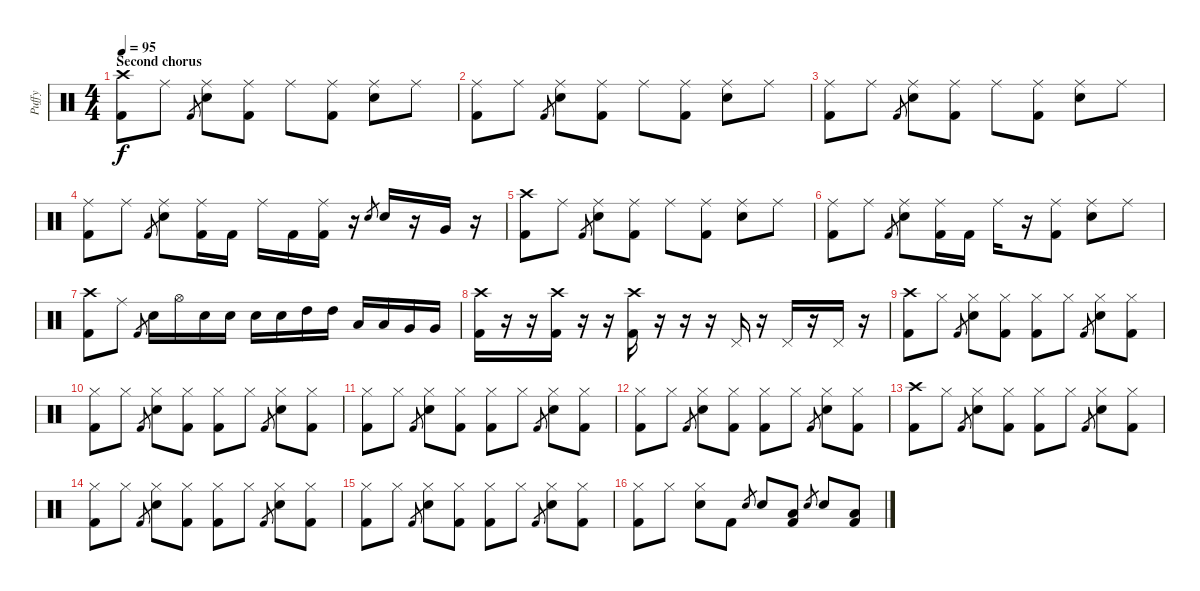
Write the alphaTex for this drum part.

\track ("Puffy" "Puffy") {instrument percussion}
\staff {score}
\articulation defaults
\ts (4 4)
\section ("" "Second chorus")
\tempo 95
\clef neutral
\ks c
("Crash high (hit)" "Kick (hit) 2").8{dy f} "Ride (middle)".8 "Kick (hit) 2".8{gr} ("Ride (middle)" "Snare (hit) 2").8 ("Ride (middle)" "Kick (hit) 2").8 "Ride (middle)".8 ("Ride (middle)" "Kick (hit) 2").8 ("Ride (middle)" "Snare (hit) 2").8 "Ride (middle)".8 |
("Ride (middle)" "Kick (hit) 2").8 "Ride (middle)".8 "Kick (hit) 2".8{gr} ("Ride (middle)" "Snare (hit) 2").8 ("Ride (middle)" "Kick (hit) 2").8 "Ride (middle)".8 ("Ride (middle)" "Kick (hit) 2").8 ("Ride (middle)" "Snare (hit) 2").8 "Ride (middle)".8 |
("Ride (middle)" "Kick (hit) 2").8 "Ride (middle)".8 "Kick (hit) 2".8{gr} ("Ride (middle)" "Snare (hit) 2").8 ("Ride (middle)" "Kick (hit) 2").8 "Ride (middle)".8 ("Ride (middle)" "Kick (hit) 2").8 ("Ride (middle)" "Snare (hit) 2").8 "Ride (middle)".8 |
("Ride (middle)" "Kick (hit) 2").8 "Ride (middle)".8 "Kick (hit) 2".8{gr} ("Ride (middle)" "Snare (hit) 2").8 ("Ride (middle)" "Kick (hit) 2").16 "Kick (hit) 2".16 "Ride (middle)".16 "Kick (hit) 2".16 ("Ride (middle)" "Kick (hit) 2").16 r.16 "Snare (hit) 2".8{gr} "Snare (hit) 2".16 r.16 "Very Low Tom (hit)".16 r.16 |
("Crash high (hit)" "Kick (hit) 2").8 "Ride (middle)".8 "Kick (hit) 2".8{gr} ("Ride (middle)" "Snare (hit) 2").8 ("Ride (middle)" "Kick (hit) 2").8 "Ride (middle)".8 ("Ride (middle)" "Kick (hit) 2").8 ("Ride (middle)" "Snare (hit) 2").8 "Ride (middle)".8 |
("Ride (middle)" "Kick (hit) 2").8 "Ride (middle)".8 "Kick (hit) 2".8{gr} ("Ride (middle)" "Snare (hit) 2").8 ("Ride (middle)" "Kick (hit) 2").16 "Kick (hit) 2".16 "Ride (middle)".16 r.16 ("Ride (middle)" "Kick (hit) 2").8 ("Ride (middle)" "Snare (hit) 2").8 "Ride (middle)".8 |
("Crash high (hit)" "Kick (hit) 2").8 "Ride (middle)".8 "Kick (hit) 2".8{gr} "Snare (hit) 2".16 "Hi-Hat (open)".16 "Snare (hit) 2".16 "Snare (hit) 2".16 "Snare (hit) 2".16 "Snare (hit) 2".16 "High Tom (hit)".16 "High Tom (hit)".16 "Low Tom (hit)".16 "Low Tom (hit)".16 "Very Low Tom (hit)".16 "Very Low Tom (hit)".16 |
("Crash high (hit)" "Kick (hit) 2").16 r.16 r.16 ("Crash high (hit)" "Kick (hit) 2").16 r.16 r.16 ("Crash high (hit)" "Kick (hit) 2").16 r.16 r.16 r.16 "Pedal Hi-Hat (hit)".16 r.16 "Pedal Hi-Hat (hit)".16 r.16 "Pedal Hi-Hat (hit)".16 r.16 |
("Crash high (hit)" "Kick (hit) 2").8 "Hi-Hat (closed)".8 "Kick (hit) 2".8{gr} ("Hi-Hat (closed)" "Snare (hit) 2").8 ("Hi-Hat (closed)" "Kick (hit) 2").8 ("Hi-Hat (closed)" "Kick (hit) 2").8 "Hi-Hat (closed)".8 "Kick (hit) 2".8{gr} ("Hi-Hat (closed)" "Snare (hit) 2").8 ("Hi-Hat (closed)" "Kick (hit) 2").8 |
("Hi-Hat (closed)" "Kick (hit) 2").8 "Hi-Hat (closed)".8 "Kick (hit) 2".8{gr} ("Hi-Hat (closed)" "Snare (hit) 2").8 ("Hi-Hat (closed)" "Kick (hit) 2").8 ("Hi-Hat (closed)" "Kick (hit) 2").8 "Hi-Hat (closed)".8 "Kick (hit) 2".8{gr} ("Hi-Hat (closed)" "Snare (hit) 2").8 ("Hi-Hat (closed)" "Kick (hit) 2").8 |
("Hi-Hat (closed)" "Kick (hit) 2").8 "Hi-Hat (closed)".8 "Kick (hit) 2".8{gr} ("Hi-Hat (closed)" "Snare (hit) 2").8 ("Hi-Hat (closed)" "Kick (hit) 2").8 ("Hi-Hat (closed)" "Kick (hit) 2").8 "Hi-Hat (closed)".8 "Kick (hit) 2".8{gr} ("Hi-Hat (closed)" "Snare (hit) 2").8 ("Hi-Hat (closed)" "Kick (hit) 2").8 |
("Hi-Hat (closed)" "Kick (hit) 2").8 "Hi-Hat (closed)".8 "Kick (hit) 2".8{gr} ("Hi-Hat (closed)" "Snare (hit) 2").8 ("Hi-Hat (closed)" "Kick (hit) 2").8 ("Hi-Hat (closed)" "Kick (hit) 2").8 "Hi-Hat (closed)".8 "Kick (hit) 2".8{gr} ("Hi-Hat (closed)" "Snare (hit) 2").8 ("Hi-Hat (closed)" "Kick (hit) 2").8 |
("Crash high (hit)" "Kick (hit) 2").8 "Hi-Hat (closed)".8 "Kick (hit) 2".8{gr} ("Hi-Hat (closed)" "Snare (hit) 2").8 ("Hi-Hat (closed)" "Kick (hit) 2").8 ("Hi-Hat (closed)" "Kick (hit) 2").8 "Hi-Hat (closed)".8 "Kick (hit) 2".8{gr} ("Hi-Hat (closed)" "Snare (hit) 2").8 ("Hi-Hat (closed)" "Kick (hit) 2").8 |
("Hi-Hat (closed)" "Kick (hit) 2").8 "Hi-Hat (closed)".8 "Kick (hit) 2".8{gr} ("Hi-Hat (closed)" "Snare (hit) 2").8 ("Hi-Hat (closed)" "Kick (hit) 2").8 ("Hi-Hat (closed)" "Kick (hit) 2").8 "Hi-Hat (closed)".8 "Kick (hit) 2".8{gr} ("Hi-Hat (closed)" "Snare (hit) 2").8 ("Hi-Hat (closed)" "Kick (hit) 2").8 |
("Hi-Hat (closed)" "Kick (hit) 2").8 "Hi-Hat (closed)".8 "Kick (hit) 2".8{gr} ("Hi-Hat (closed)" "Snare (hit) 2").8 ("Hi-Hat (closed)" "Kick (hit) 2").8 ("Hi-Hat (closed)" "Kick (hit) 2").8 "Hi-Hat (closed)".8 "Kick (hit) 2".8{gr} ("Hi-Hat (closed)" "Snare (hit) 2").8 ("Hi-Hat (closed)" "Kick (hit) 2").8 |
("Hi-Hat (closed)" "Kick (hit) 2").8 "Hi-Hat (closed)".8 ("Hi-Hat (closed)" "Snare (hit) 2").8 "Kick (hit) 2".8 "Snare (hit) 2".8{gr} "Snare (hit) 2".8 ("Low Floor Tom (hit)" "Kick (hit) 2").8 "Snare (hit) 2".8{gr} "Snare (hit) 2".8 ("Low Floor Tom (hit)" "Kick (hit) 2").8
